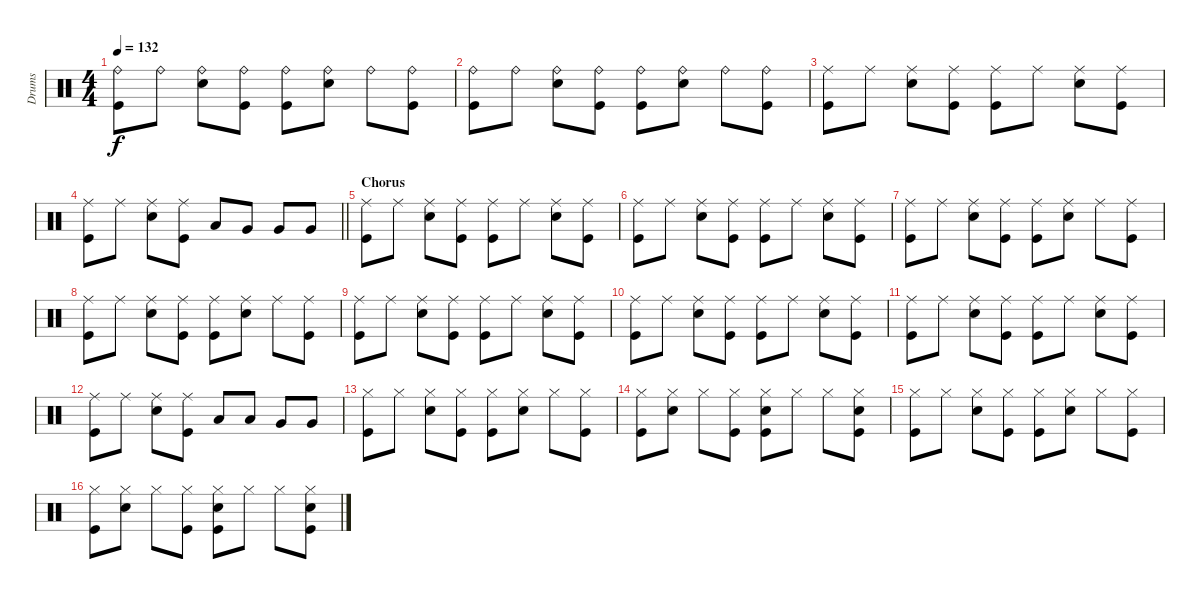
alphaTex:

\track ("Drums" "Drums") {instrument percussion}
\staff {score}
\articulation defaults
\ts (4 4)
\tempo 132
\clef neutral
\ks c
("Ride (bell)" "Kick (hit)").8{dy f} "Ride (bell)".8 ("Ride (bell)" "Electric Snare (hit)").8 ("Ride (bell)" "Kick (hit)").8 ("Ride (bell)" "Kick (hit)").8 ("Ride (bell)" "Electric Snare (hit)").8 "Ride (bell)".8 ("Ride (bell)" "Kick (hit)").8 |
("Ride (bell)" "Kick (hit)").8 "Ride (bell)".8 ("Ride (bell)" "Electric Snare (hit)").8 ("Ride (bell)" "Kick (hit)").8 ("Ride (bell)" "Kick (hit)").8 ("Ride (bell)" "Electric Snare (hit)").8 "Ride (bell)".8 ("Ride (bell)" "Kick (hit)").8 |
("Ride (middle)" "Kick (hit)").8 "Ride (middle)".8 ("Ride (middle)" "Electric Snare (hit)").8 ("Ride (middle)" "Kick (hit)").8 ("Ride (middle)" "Kick (hit)").8 "Ride (middle)".8 ("Ride (middle)" "Electric Snare (hit)").8 ("Ride (middle)" "Kick (hit)").8 |
\barLineRight lightlight
("Ride (middle)" "Kick (hit)").8 "Ride (middle)".8 ("Ride (middle)" "Electric Snare (hit)").8 ("Ride (middle)" "Kick (hit)").8 "Low Tom (hit)".8 "Very Low Tom (hit)".8 "Very Low Tom (hit)".8 "Very Low Tom (hit)".8 |
\section ("" "Chorus")
("Ride (middle)" "Kick (hit)").8 "Ride (middle)".8 ("Ride (middle)" "Electric Snare (hit)").8 ("Ride (middle)" "Kick (hit)").8 ("Ride (middle)" "Kick (hit)").8 "Ride (middle)".8 ("Ride (middle)" "Electric Snare (hit)").8 ("Ride (middle)" "Kick (hit)").8 |
("Ride (middle)" "Kick (hit)").8 "Ride (middle)".8 ("Ride (middle)" "Electric Snare (hit)").8 ("Ride (middle)" "Kick (hit)").8 ("Ride (middle)" "Kick (hit)").8 "Ride (middle)".8 ("Ride (middle)" "Electric Snare (hit)").8 ("Ride (middle)" "Kick (hit)").8 |
("Ride (middle)" "Kick (hit)").8 "Ride (middle)".8 ("Ride (middle)" "Electric Snare (hit)").8 ("Ride (middle)" "Kick (hit)").8 ("Ride (middle)" "Kick (hit)").8 ("Ride (middle)" "Electric Snare (hit)").8 "Ride (middle)".8 ("Ride (middle)" "Kick (hit)").8 |
("Ride (middle)" "Kick (hit)").8 "Ride (middle)".8 ("Ride (middle)" "Electric Snare (hit)").8 ("Ride (middle)" "Kick (hit)").8 ("Ride (middle)" "Kick (hit)").8 ("Ride (middle)" "Electric Snare (hit)").8 "Ride (middle)".8 ("Ride (middle)" "Kick (hit)").8 |
("Ride (middle)" "Kick (hit)").8 "Ride (middle)".8 ("Ride (middle)" "Electric Snare (hit)").8 ("Ride (middle)" "Kick (hit)").8 ("Ride (middle)" "Kick (hit)").8 "Ride (middle)".8 ("Ride (middle)" "Electric Snare (hit)").8 ("Ride (middle)" "Kick (hit)").8 |
("Ride (middle)" "Kick (hit)").8 "Ride (middle)".8 ("Ride (middle)" "Electric Snare (hit)").8 ("Ride (middle)" "Kick (hit)").8 ("Ride (middle)" "Kick (hit)").8 "Ride (middle)".8 ("Ride (middle)" "Electric Snare (hit)").8 ("Ride (middle)" "Kick (hit)").8 |
("Ride (middle)" "Kick (hit)").8 "Ride (middle)".8 ("Ride (middle)" "Electric Snare (hit)").8 ("Ride (middle)" "Kick (hit)").8 ("Ride (middle)" "Kick (hit)").8 "Ride (middle)".8 ("Ride (middle)" "Electric Snare (hit)").8 ("Ride (middle)" "Kick (hit)").8 |
("Ride (middle)" "Kick (hit)").8 "Ride (middle)".8 ("Ride (middle)" "Electric Snare (hit)").8 ("Ride (middle)" "Kick (hit)").8 "Low Tom (hit)".8 "Low Tom (hit)".8 "Very Low Tom (hit)".8 "Very Low Tom (hit)".8 |
("Hi-Hat (closed)" "Kick (hit)").8 "Hi-Hat (closed)".8 ("Hi-Hat (closed)" "Electric Snare (hit)").8 ("Hi-Hat (closed)" "Kick (hit)").8 ("Hi-Hat (closed)" "Kick (hit)").8 ("Hi-Hat (closed)" "Electric Snare (hit)").8 "Hi-Hat (closed)".8 ("Hi-Hat (closed)" "Kick (hit)").8 |
("Hi-Hat (closed)" "Kick (hit)").8 ("Hi-Hat (closed)" "Electric Snare (hit)").8 "Hi-Hat (closed)".8 ("Hi-Hat (closed)" "Kick (hit)").8 ("Hi-Hat (closed)" "Electric Snare (hit)" "Kick (hit)").8 "Hi-Hat (closed)".8 "Hi-Hat (closed)".8 ("Hi-Hat (closed)" "Electric Snare (hit)" "Kick (hit)").8 |
("Hi-Hat (closed)" "Kick (hit)").8 "Hi-Hat (closed)".8 ("Hi-Hat (closed)" "Electric Snare (hit)").8 ("Hi-Hat (closed)" "Kick (hit)").8 ("Hi-Hat (closed)" "Kick (hit)").8 ("Hi-Hat (closed)" "Electric Snare (hit)").8 "Hi-Hat (closed)".8 ("Hi-Hat (closed)" "Kick (hit)").8 |
("Hi-Hat (closed)" "Kick (hit)").8 ("Hi-Hat (closed)" "Electric Snare (hit)").8 "Hi-Hat (closed)".8 ("Hi-Hat (closed)" "Kick (hit)").8 ("Hi-Hat (closed)" "Electric Snare (hit)" "Kick (hit)").8 "Hi-Hat (closed)".8 "Hi-Hat (closed)".8 ("Hi-Hat (closed)" "Electric Snare (hit)" "Kick (hit)").8
